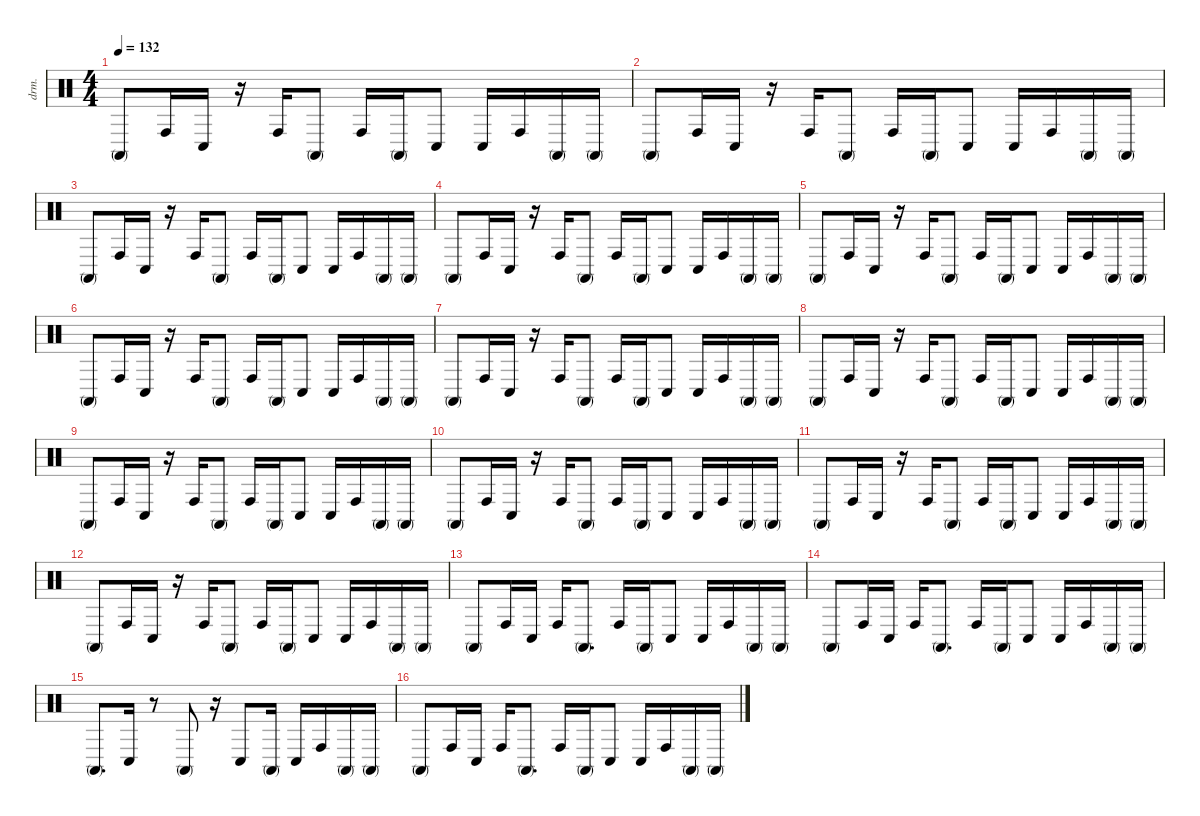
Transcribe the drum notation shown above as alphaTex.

\defaultSystemsLayout 4
\hideDynamics
\bracketExtendMode nobrackets
\track ("congas" "drm.") {instrument percussion}
\staff {score}
\articulation defaults
\ts (4 4)
\tempo 132
\clef neutral
\ks c "Conga high (mute)".8{dy f} "Conga high (hit)".16 "Conga low (hit)".16
r.16 "Conga high (hit)".16 "Conga high (mute)".8 "Conga high (hit)".16 "Conga high (mute)".16 "Conga low (hit)".8 "Conga low (hit)".16 "Conga high (hit)".16 "Conga high (mute)".16 "Conga high (mute)".16 |
"Conga high (mute)".8 "Conga high (hit)".16 "Conga low (hit)".16 r.16 "Conga high (hit)".16 "Conga high (mute)".8 "Conga high (hit)".16 "Conga high (mute)".16 "Conga low (hit)".8 "Conga low (hit)".16 "Conga high (hit)".16 "Conga high (mute)".16 "Conga high (mute)".16 |
"Conga high (mute)".8 "Conga high (hit)".16 "Conga low (hit)".16 r.16 "Conga high (hit)".16 "Conga high (mute)".8 "Conga high (hit)".16 "Conga high (mute)".16 "Conga low (hit)".8 "Conga low (hit)".16 "Conga high (hit)".16 "Conga high (mute)".16 "Conga high (mute)".16 |
"Conga high (mute)".8 "Conga high (hit)".16 "Conga low (hit)".16 r.16 "Conga high (hit)".16 "Conga high (mute)".8 "Conga high (hit)".16 "Conga high (mute)".16 "Conga low (hit)".8 "Conga low (hit)".16 "Conga high (hit)".16 "Conga high (mute)".16 "Conga high (mute)".16 |
"Conga high (mute)".8 "Conga high (hit)".16 "Conga low (hit)".16 r.16 "Conga high (hit)".16 "Conga high (mute)".8 "Conga high (hit)".16 "Conga high (mute)".16 "Conga low (hit)".8 "Conga low (hit)".16 "Conga high (hit)".16 "Conga high (mute)".16 "Conga high (mute)".16 |
"Conga high (mute)".8 "Conga high (hit)".16 "Conga low (hit)".16 r.16 "Conga high (hit)".16 "Conga high (mute)".8 "Conga high (hit)".16 "Conga high (mute)".16 "Conga low (hit)".8 "Conga low (hit)".16 "Conga high (hit)".16 "Conga high (mute)".16 "Conga high (mute)".16 |
"Conga high (mute)".8 "Conga high (hit)".16 "Conga low (hit)".16 r.16 "Conga high (hit)".16 "Conga high (mute)".8 "Conga high (hit)".16 "Conga high (mute)".16 "Conga low (hit)".8 "Conga low (hit)".16 "Conga high (hit)".16 "Conga high (mute)".16 "Conga high (mute)".16 |
"Conga high (mute)".8 "Conga high (hit)".16 "Conga low (hit)".16 r.16 "Conga high (hit)".16 "Conga high (mute)".8 "Conga high (hit)".16 "Conga high (mute)".16 "Conga low (hit)".8 "Conga low (hit)".16 "Conga high (hit)".16 "Conga high (mute)".16 "Conga high (mute)".16 |
"Conga high (mute)".8 "Conga high (hit)".16 "Conga low (hit)".16 r.16 "Conga high (hit)".16 "Conga high (mute)".8 "Conga high (hit)".16 "Conga high (mute)".16 "Conga low (hit)".8 "Conga low (hit)".16 "Conga high (hit)".16 "Conga high (mute)".16 "Conga high (mute)".16 |
"Conga high (mute)".8 "Conga high (hit)".16 "Conga low (hit)".16 r.16 "Conga high (hit)".16 "Conga high (mute)".8 "Conga high (hit)".16 "Conga high (mute)".16 "Conga low (hit)".8 "Conga low (hit)".16 "Conga high (hit)".16 "Conga high (mute)".16 "Conga high (mute)".16 |
"Conga high (mute)".8 "Conga high (hit)".16 "Conga low (hit)".16 r.16 "Conga high (hit)".16 "Conga high (mute)".8 "Conga high (hit)".16 "Conga high (mute)".16 "Conga low (hit)".8 "Conga low (hit)".16 "Conga high (hit)".16 "Conga high (mute)".16 "Conga high (mute)".16 |
"Conga high (mute)".8 "Conga high (hit)".16 "Conga low (hit)".16 r.16 "Conga high (hit)".16 "Conga high (mute)".8 "Conga high (hit)".16 "Conga high (mute)".16 "Conga low (hit)".8 "Conga low (hit)".16 "Conga high (hit)".16 "Conga high (mute)".16 "Conga high (mute)".16 |
"Conga high (mute)".8 "Conga high (hit)".16 "Conga low (hit)".16 "Conga high (hit)".16 "Conga high (mute)".8{d} "Conga high (hit)".16 "Conga high (mute)".16 "Conga low (hit)".8 "Conga low (hit)".16 "Conga high (hit)".16 "Conga high (mute)".16 "Conga high (mute)".16 |
"Conga high (mute)".8 "Conga high (hit)".16 "Conga low (hit)".16 "Conga high (hit)".16 "Conga high (mute)".8{d} "Conga high (hit)".16 "Conga high (mute)".16 "Conga low (hit)".8 "Conga low (hit)".16 "Conga high (hit)".16 "Conga high (mute)".16 "Conga high (mute)".16 |
"Conga high (mute)".8{d} "Conga low (hit)".16 r.8 "Conga high (mute)".8 r.16 "Conga low (hit)".8 "Conga high (mute)".16 "Conga low (hit)".16 "Conga high (hit)".16 "Conga high (mute)".16 "Conga high (mute)".16 |
"Conga high (mute)".8 "Conga high (hit)".16 "Conga low (hit)".16 "Conga high (hit)".16 "Conga high (mute)".8{d} "Conga high (hit)".16 "Conga high (mute)".16 "Conga low (hit)".8 "Conga low (hit)".16 "Conga high (hit)".16 "Conga high (mute)".16 "Conga high (mute)".16
